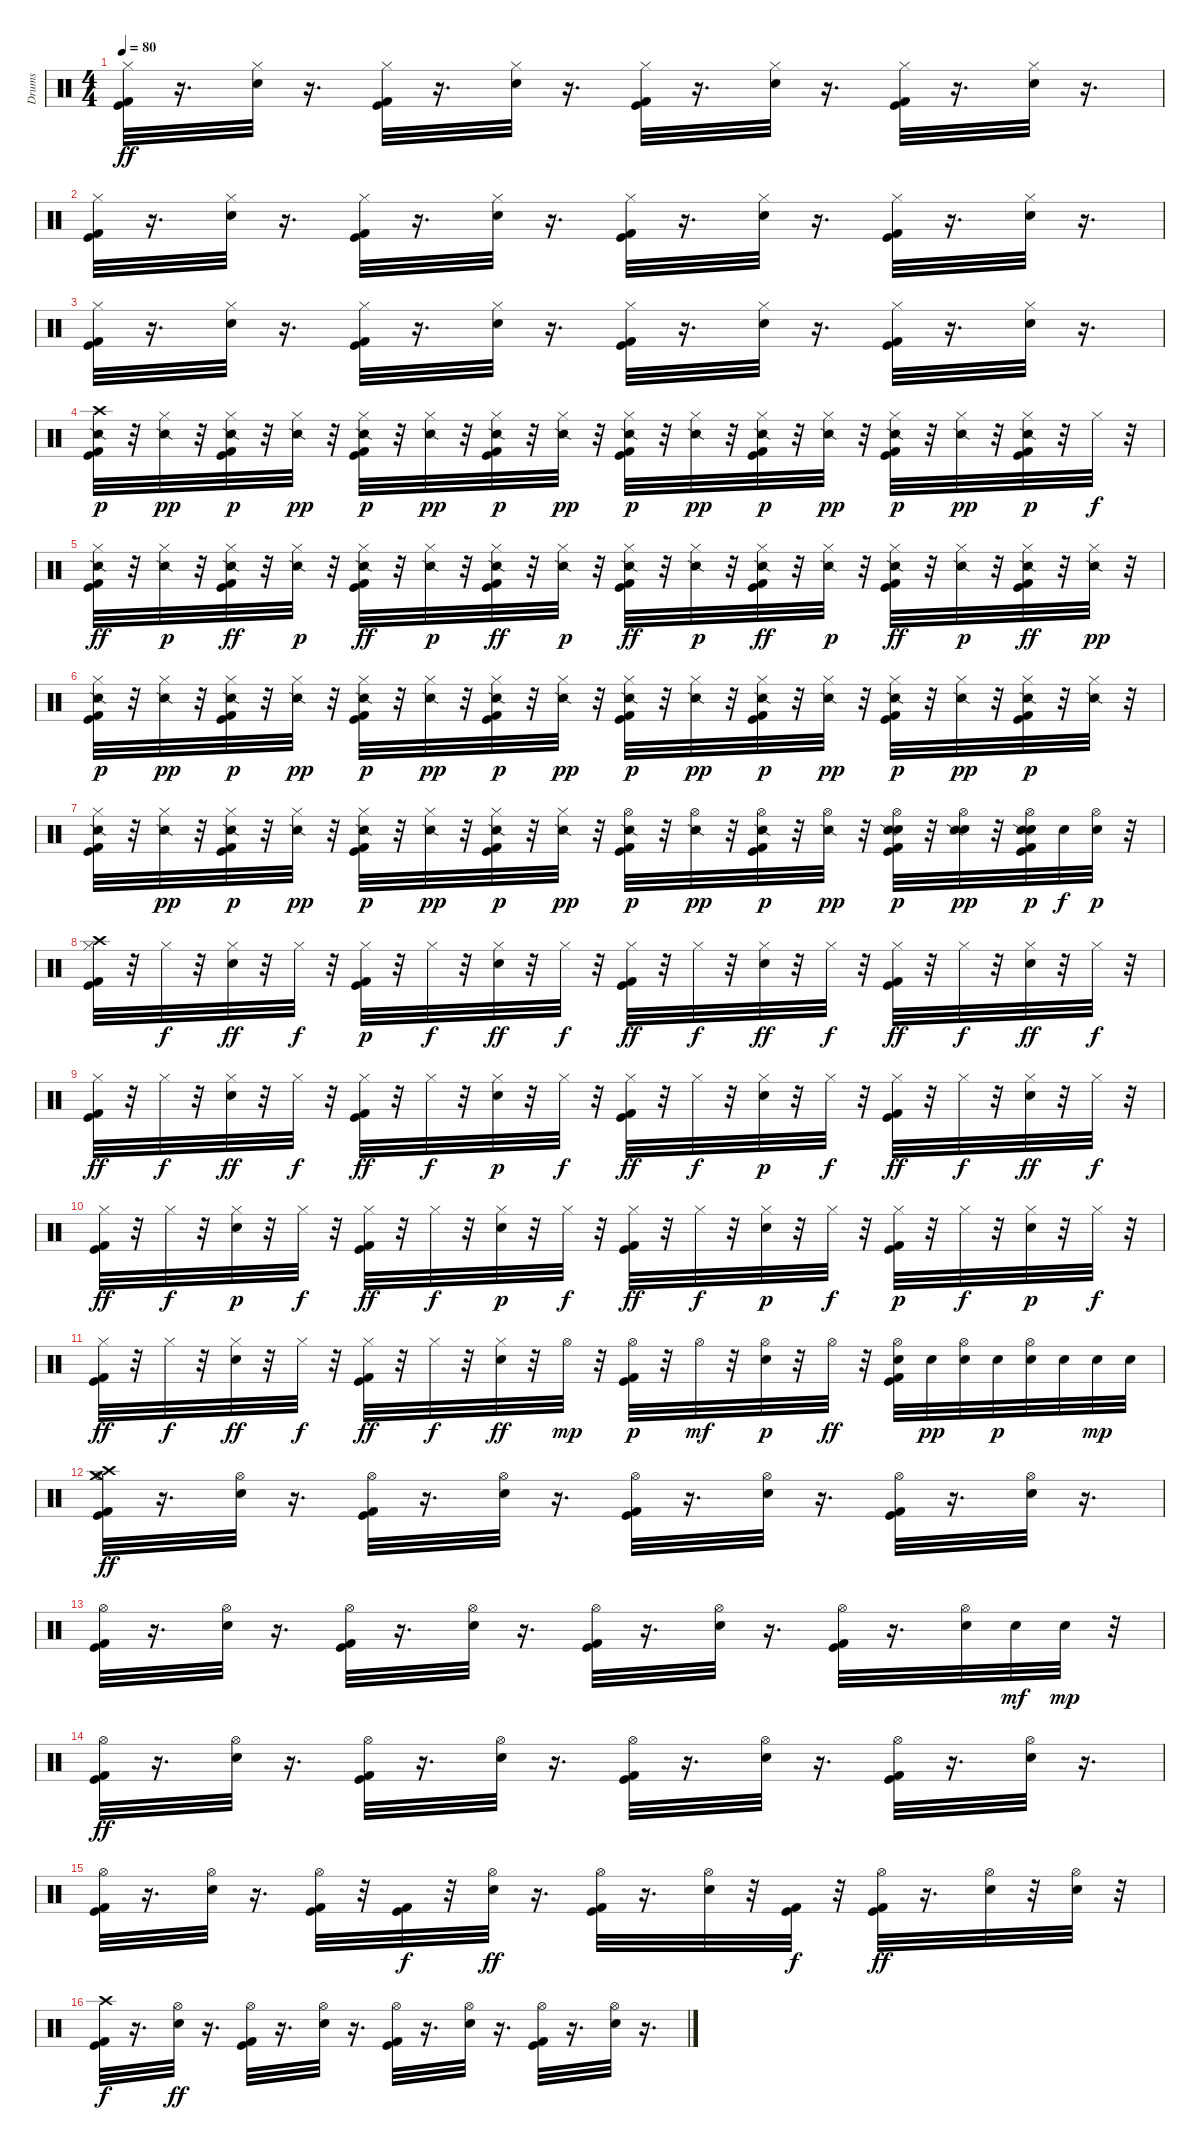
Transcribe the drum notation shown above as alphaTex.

\track ("Drums" "Drums") {instrument percussion}
\staff {score}
\articulation defaults
\ts (4 4)
\tempo 80
\clef neutral
\ks c
("Kick (hit)" "Hi-Hat (closed)" "Kick (hit) 2").32{dy ff} r.16{d} ("Hi-Hat (closed)" "Electric Snare (hit)").32 r.16{d} ("Hi-Hat (closed)" "Kick (hit) 2" "Kick (hit)").32 r.16{d} ("Hi-Hat (closed)" "Electric Snare (hit)").32 r.16{d} ("Kick (hit)" "Hi-Hat (closed)" "Kick (hit) 2").32 r.16{d} ("Hi-Hat (closed)" "Electric Snare (hit)").32 r.16{d} ("Kick (hit) 2" "Hi-Hat (closed)" "Kick (hit)").32 r.16{d} ("Hi-Hat (closed)" "Electric Snare (hit)").32 r.16{d} |
("Kick (hit)" "Hi-Hat (closed)" "Kick (hit) 2").32 r.16{d} ("Hi-Hat (closed)" "Electric Snare (hit)").32 r.16{d} ("Hi-Hat (closed)" "Kick (hit) 2" "Kick (hit)").32 r.16{d} ("Hi-Hat (closed)" "Electric Snare (hit)").32 r.16{d} ("Kick (hit)" "Hi-Hat (closed)" "Kick (hit) 2").32 r.16{d} ("Hi-Hat (closed)" "Electric Snare (hit)").32 r.16{d} ("Kick (hit) 2" "Hi-Hat (closed)" "Kick (hit)").32 r.16{d} ("Hi-Hat (closed)" "Electric Snare (hit)").32 r.16{d} |
("Kick (hit)" "Hi-Hat (closed)" "Kick (hit) 2").32 r.16{d} ("Hi-Hat (closed)" "Electric Snare (hit)").32 r.16{d} ("Hi-Hat (closed)" "Kick (hit) 2" "Kick (hit)").32 r.16{d} ("Hi-Hat (closed)" "Electric Snare (hit)").32 r.16{d} ("Kick (hit)" "Hi-Hat (closed)" "Kick (hit) 2").32 r.16{d} ("Hi-Hat (closed)" "Electric Snare (hit)").32 r.16{d} ("Kick (hit) 2" "Hi-Hat (closed)" "Kick (hit)").32 r.16{d} ("Hi-Hat (closed)" "Electric Snare (hit)").32 r.16{d} |
("Crash high (hit)" "Kick (hit)" "Kick (hit) 2" "Snare (side stick) 2").32{dy p} r.32 ("Hi-Hat (closed)" "Snare (side stick) 2").32{dy pp} r.32 ("Kick (hit)" "Kick (hit) 2" "Hi-Hat (closed)" "Snare (side stick) 2").32{dy p} r.32 ("Hi-Hat (closed)" "Snare (side stick) 2").32{dy pp} r.32 ("Kick (hit)" "Hi-Hat (closed)" "Kick (hit) 2" "Snare (side stick) 2").32{dy p} r.32 ("Hi-Hat (closed)" "Snare (side stick) 2").32{dy pp} r.32 ("Kick (hit) 2" "Kick (hit)" "Hi-Hat (closed)" "Snare (side stick) 2").32{dy p} r.32 ("Hi-Hat (closed)" "Snare (side stick) 2").32{dy pp} r.32 ("Kick (hit)" "Hi-Hat (closed)" "Kick (hit) 2" "Snare (side stick) 2").32{dy p} r.32 ("Hi-Hat (closed)" "Snare (side stick) 2").32{dy pp} r.32 ("Kick (hit)" "Kick (hit) 2" "Hi-Hat (closed)" "Snare (side stick) 2").32{dy p} r.32 ("Hi-Hat (closed)" "Snare (side stick) 2").32{dy pp} r.32 ("Kick (hit) 2" "Hi-Hat (closed)" "Kick (hit)" "Snare (side stick) 2").32{dy p} r.32 ("Hi-Hat (closed)" "Snare (side stick) 2").32{dy pp} r.32 ("Kick (hit) 2" "Kick (hit)" "Hi-Hat (closed)" "Snare (side stick) 2").32{dy p} r.32 "Hi-Hat (closed)".32{dy f} r.32 |
("Snare (side stick) 2" "Hi-Hat (closed)" "Kick (hit)" "Kick (hit) 2").32{dy ff} r.32 ("Snare (side stick) 2" "Hi-Hat (closed)").32{dy p} r.32 ("Snare (side stick) 2" "Hi-Hat (closed)" "Kick (hit)" "Kick (hit) 2").32{dy ff} r.32 ("Snare (side stick) 2" "Hi-Hat (closed)").32{dy p} r.32 ("Snare (side stick) 2" "Kick (hit)" "Hi-Hat (closed)" "Kick (hit) 2").32{dy ff} r.32 ("Snare (side stick) 2" "Hi-Hat (closed)").32{dy p} r.32 ("Snare (side stick) 2" "Kick (hit) 2" "Kick (hit)" "Hi-Hat (closed)").32{dy ff} r.32 ("Snare (side stick) 2" "Hi-Hat (closed)").32{dy p} r.32 ("Snare (side stick) 2" "Kick (hit)" "Hi-Hat (closed)" "Kick (hit) 2").32{dy ff} r.32 ("Snare (side stick) 2" "Hi-Hat (closed)").32{dy p} r.32 ("Snare (side stick) 2" "Hi-Hat (closed)" "Kick (hit)" "Kick (hit) 2").32{dy ff} r.32 ("Snare (side stick) 2" "Hi-Hat (closed)").32{dy p} r.32 ("Snare (side stick) 2" "Kick (hit)" "Kick (hit) 2" "Hi-Hat (closed)").32{dy ff} r.32 ("Snare (side stick) 2" "Hi-Hat (closed)").32{dy p} r.32 ("Snare (side stick) 2" "Kick (hit) 2" "Hi-Hat (closed)" "Kick (hit)").32{dy ff} r.32 ("Snare (side stick) 2" "Hi-Hat (closed)").32{dy pp} r.32 |
("Hi-Hat (closed)" "Kick (hit)" "Kick (hit) 2" "Snare (side stick) 2").32{dy p} r.32 ("Hi-Hat (closed)" "Snare (side stick) 2").32{dy pp} r.32 ("Hi-Hat (closed)" "Kick (hit)" "Kick (hit) 2" "Snare (side stick) 2").32{dy p} r.32 ("Hi-Hat (closed)" "Snare (side stick) 2").32{dy pp} r.32 ("Kick (hit)" "Hi-Hat (closed)" "Kick (hit) 2" "Snare (side stick) 2").32{dy p} r.32 ("Hi-Hat (closed)" "Snare (side stick) 2").32{dy pp} r.32 ("Kick (hit) 2" "Kick (hit)" "Hi-Hat (closed)" "Snare (side stick) 2").32{dy p} r.32 ("Hi-Hat (closed)" "Snare (side stick) 2").32{dy pp} r.32 ("Kick (hit)" "Hi-Hat (closed)" "Kick (hit) 2" "Snare (side stick) 2").32{dy p} r.32 ("Hi-Hat (closed)" "Snare (side stick) 2").32{dy pp} r.32 ("Hi-Hat (closed)" "Kick (hit)" "Kick (hit) 2" "Snare (side stick) 2").32{dy p} r.32 ("Hi-Hat (closed)" "Snare (side stick) 2").32{dy pp} r.32 ("Kick (hit)" "Kick (hit) 2" "Hi-Hat (closed)" "Snare (side stick) 2").32{dy p} r.32 ("Hi-Hat (closed)" "Snare (side stick) 2").32{dy pp} r.32 ("Kick (hit) 2" "Kick (hit)" "Hi-Hat (closed)" "Snare (side stick) 2").32{dy p} r.32 ("Snare (side stick) 2" "Hi-Hat (closed)").32 r.32 |
("Hi-Hat (closed)" "Kick (hit)" "Kick (hit) 2" "Snare (side stick) 2").32 r.32 ("Hi-Hat (closed)" "Snare (side stick) 2").32{dy pp} r.32 ("Kick (hit)" "Kick (hit) 2" "Hi-Hat (closed)" "Snare (side stick) 2").32{dy p} r.32 ("Hi-Hat (closed)" "Snare (side stick) 2").32{dy pp} r.32 ("Kick (hit) 2" "Kick (hit)" "Hi-Hat (closed)" "Snare (side stick) 2").32{dy p} r.32 ("Hi-Hat (closed)" "Snare (side stick) 2").32{dy pp} r.32 ("Hi-Hat (closed)" "Kick (hit)" "Kick (hit) 2" "Snare (side stick) 2").32{dy p} r.32 ("Hi-Hat (closed)" "Snare (side stick) 2").32{dy pp} r.32 ("Kick (hit)" "Hi-Hat (open)" "Kick (hit) 2" "Snare (side stick) 2").32{dy p} r.32 ("Hi-Hat (open)" "Snare (side stick) 2").32{dy pp} r.32 ("Kick (hit) 2" "Kick (hit)" "Hi-Hat (open)" "Snare (side stick) 2").32{dy p} r.32 ("Hi-Hat (open)" "Snare (side stick) 2").32{dy pp} r.32 ("Kick (hit) 2" "Kick (hit)" "Snare (hit) 2" "Hi-Hat (open)" "Snare (side stick) 2").32{dy p} r.32 ("Snare (hit) 2" "Hi-Hat (open)" "Snare (side stick) 2").32{dy pp} r.32 ("Hi-Hat (open)" "Snare (hit) 2" "Kick (hit)" "Kick (hit) 2" "Snare (side stick) 2").32{dy p} "Snare (hit) 2".32{dy f} ("Snare (hit) 2" "Hi-Hat (open)").32{dy p} r.32 |
("Kick (hit) 2" "Kick (hit)" "Crash high (hit)" "Hi-Hat (closed)").32 r.32 "Hi-Hat (closed)".32{dy f} r.32 ("Hi-Hat (closed)" "Snare (hit) 2").32{dy ff} r.32 "Hi-Hat (closed)".32{dy f} r.32 ("Kick (hit) 2" "Kick (hit)" "Hi-Hat (closed)").32{dy p} r.32 "Hi-Hat (closed)".32{dy f} r.32 ("Hi-Hat (closed)" "Snare (hit) 2").32{dy ff} r.32 "Hi-Hat (closed)".32{dy f} r.32 ("Hi-Hat (closed)" "Kick (hit)" "Kick (hit) 2").32{dy ff} r.32 "Hi-Hat (closed)".32{dy f} r.32 ("Hi-Hat (closed)" "Snare (hit) 2").32{dy ff} r.32 "Hi-Hat (closed)".32{dy f} r.32 ("Kick (hit)" "Hi-Hat (closed)" "Kick (hit) 2").32{dy ff} r.32 "Hi-Hat (closed)".32{dy f} r.32 ("Snare (hit) 2" "Hi-Hat (closed)").32{dy ff} r.32 "Hi-Hat (closed)".32{dy f} r.32 |
("Kick (hit) 2" "Hi-Hat (closed)" "Kick (hit)").32{dy ff} r.32 "Hi-Hat (closed)".32{dy f} r.32 ("Hi-Hat (closed)" "Snare (hit) 2").32{dy ff} r.32 "Hi-Hat (closed)".32{dy f} r.32 ("Kick (hit)" "Hi-Hat (closed)" "Kick (hit) 2").32{dy ff} r.32 "Hi-Hat (closed)".32{dy f} r.32 ("Snare (hit) 2" "Hi-Hat (closed)").32{dy p} r.32 "Hi-Hat (closed)".32{dy f} r.32 ("Hi-Hat (closed)" "Kick (hit) 2" "Kick (hit)").32{dy ff} r.32 "Hi-Hat (closed)".32{dy f} r.32 ("Snare (hit) 2" "Hi-Hat (closed)").32{dy p} r.32 "Hi-Hat (closed)".32{dy f} r.32 ("Kick (hit)" "Hi-Hat (closed)" "Kick (hit) 2").32{dy ff} r.32 "Hi-Hat (closed)".32{dy f} r.32 ("Hi-Hat (closed)" "Snare (hit) 2").32{dy ff} r.32 "Hi-Hat (closed)".32{dy f} r.32 |
("Kick (hit) 2" "Hi-Hat (closed)" "Kick (hit)").32{dy ff} r.32 "Hi-Hat (closed)".32{dy f} r.32 ("Snare (hit) 2" "Hi-Hat (closed)").32{dy p} r.32 "Hi-Hat (closed)".32{dy f} r.32 ("Hi-Hat (closed)" "Kick (hit) 2" "Kick (hit)").32{dy ff} r.32 "Hi-Hat (closed)".32{dy f} r.32 ("Snare (hit) 2" "Hi-Hat (closed)").32{dy p} r.32 "Hi-Hat (closed)".32{dy f} r.32 ("Kick (hit) 2" "Hi-Hat (closed)" "Kick (hit)").32{dy ff} r.32 "Hi-Hat (closed)".32{dy f} r.32 ("Snare (hit) 2" "Hi-Hat (closed)").32{dy p} r.32 "Hi-Hat (closed)".32{dy f} r.32 ("Kick (hit) 2" "Kick (hit)" "Hi-Hat (closed)").32{dy p} r.32 "Hi-Hat (closed)".32{dy f} r.32 ("Snare (hit) 2" "Hi-Hat (closed)").32{dy p} r.32 "Hi-Hat (closed)".32{dy f} r.32 |
("Kick (hit)" "Hi-Hat (closed)" "Kick (hit) 2").32{dy ff} r.32 "Hi-Hat (closed)".32{dy f} r.32 ("Hi-Hat (closed)" "Snare (hit) 2").32{dy ff} r.32 "Hi-Hat (closed)".32{dy f} r.32 ("Kick (hit)" "Hi-Hat (closed)" "Kick (hit) 2").32{dy ff} r.32 "Hi-Hat (closed)".32{dy f} r.32 ("Hi-Hat (closed)" "Snare (hit) 2").32{dy ff} r.32 "Hi-Hat (open)".32{dy mp} r.32 ("Kick (hit) 2" "Kick (hit)" "Hi-Hat (open)").32{dy p} r.32 "Hi-Hat (open)".32{dy mf} r.32 ("Snare (hit) 2" "Hi-Hat (open)").32{dy p} r.32 "Hi-Hat (open)".32{dy ff} r.32 ("Hi-Hat (open)" "Kick (hit)" "Snare (hit) 2" "Kick (hit) 2").32 "Snare (hit) 2".32{dy pp} ("Hi-Hat (open)" "Snare (hit) 2").32 "Snare (hit) 2".32{dy p} ("Snare (hit) 2" "Hi-Hat (open)").32 "Snare (hit) 2".32 "Snare (hit) 2".32{dy mp} "Snare (hit) 2".32 |
("Crash medium (hit)" "Kick (hit)" "Crash high (hit)" "Hi-Hat (open)" "Kick (hit) 2").32{dy ff} r.16{d} ("Hi-Hat (open)" "Electric Snare (hit)").32 r.16{d} ("Kick (hit)" "Kick (hit) 2" "Hi-Hat (open)").32 r.16{d} ("Hi-Hat (open)" "Electric Snare (hit)").32 r.16{d} ("Kick (hit)" "Hi-Hat (open)" "Kick (hit) 2").32 r.16{d} ("Hi-Hat (open)" "Electric Snare (hit)").32 r.16{d} ("Kick (hit) 2" "Kick (hit)" "Hi-Hat (open)").32 r.16{d} ("Hi-Hat (open)" "Electric Snare (hit)").32 r.16{d} |
("Kick (hit)" "Hi-Hat (open)" "Kick (hit) 2").32 r.16{d} ("Hi-Hat (open)" "Electric Snare (hit)").32 r.16{d} ("Hi-Hat (open)" "Kick (hit) 2" "Kick (hit)").32 r.16{d} ("Hi-Hat (open)" "Electric Snare (hit)").32 r.16{d} ("Kick (hit)" "Hi-Hat (open)" "Kick (hit) 2").32 r.16{d} ("Hi-Hat (open)" "Electric Snare (hit)").32 r.16{d} ("Kick (hit) 2" "Kick (hit)" "Hi-Hat (open)").32 r.16{d} ("Hi-Hat (open)" "Electric Snare (hit)").32 "Electric Snare (hit)".32{dy mf} "Electric Snare (hit)".32{dy mp} r.32 |
("Kick (hit)" "Hi-Hat (open)" "Kick (hit) 2").32{dy ff} r.16{d} ("Hi-Hat (open)" "Electric Snare (hit)").32 r.16{d} ("Hi-Hat (open)" "Kick (hit) 2" "Kick (hit)").32 r.16{d} ("Hi-Hat (open)" "Electric Snare (hit)").32 r.16{d} ("Kick (hit)" "Hi-Hat (open)" "Kick (hit) 2").32 r.16{d} ("Hi-Hat (open)" "Electric Snare (hit)").32 r.16{d} ("Kick (hit) 2" "Kick (hit)" "Hi-Hat (open)").32 r.16{d} ("Hi-Hat (open)" "Electric Snare (hit)").32 r.16{d} |
("Kick (hit)" "Hi-Hat (open)" "Kick (hit) 2").32 r.16{d} ("Hi-Hat (open)" "Electric Snare (hit)").32 r.16{d} ("Kick (hit)" "Hi-Hat (open)" "Kick (hit) 2").32 r.32 ("Kick (hit) 2" "Kick (hit)").32{dy f} r.32 ("Hi-Hat (open)" "Electric Snare (hit)").32{dy ff} r.16{d} ("Hi-Hat (open)" "Kick (hit)" "Kick (hit) 2").32 r.16{d} ("Hi-Hat (open)" "Electric Snare (hit)").32 r.32 ("Kick (hit)" "Kick (hit) 2").32{dy f} r.32 ("Hi-Hat (open)" "Kick (hit)" "Kick (hit) 2").32{dy ff} r.16{d} ("Hi-Hat (open)" "Electric Snare (hit)").32 r.32 ("Electric Snare (hit)" "Hi-Hat (open)").32 r.32 |
("Kick (hit)" "Crash high (hit)" "Kick (hit) 2").32{dy f} r.16{d} ("Hi-Hat (open)" "Electric Snare (hit)").32{dy ff} r.16{d} ("Hi-Hat (open)" "Kick (hit) 2" "Kick (hit)").32 r.16{d} ("Hi-Hat (open)" "Electric Snare (hit)").32 r.16{d} ("Kick (hit)" "Hi-Hat (open)" "Kick (hit) 2").32 r.16{d} ("Hi-Hat (open)" "Electric Snare (hit)").32 r.16{d} ("Kick (hit) 2" "Kick (hit)" "Hi-Hat (open)").32 r.16{d} ("Hi-Hat (open)" "Electric Snare (hit)").32 r.16{d}
